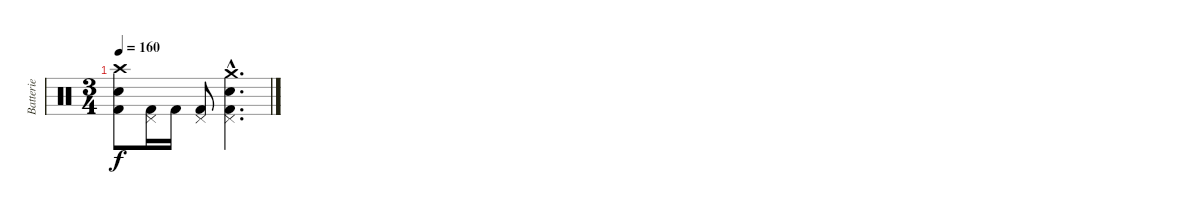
\track ("Batterie" "Batterie") {instrument percussion}
\staff {score}
\articulation defaults
\ts (3 4)
\tempo 160
\clef neutral
\ks c
("Crash high (hit)" "Electric Snare (hit)" "Kick (hit) 2").8{dy f} ("Pedal Hi-Hat (hit)" "Kick (hit) 2").16 "Kick (hit) 2".16 ("Pedal Hi-Hat (hit)" "Kick (hit) 2").8 ("Crash medium (hit)"{hac} "Pedal Hi-Hat (hit)"{hac} "Kick (hit) 2"{hac} "Electric Snare (hit)"{hac}).4{d}
